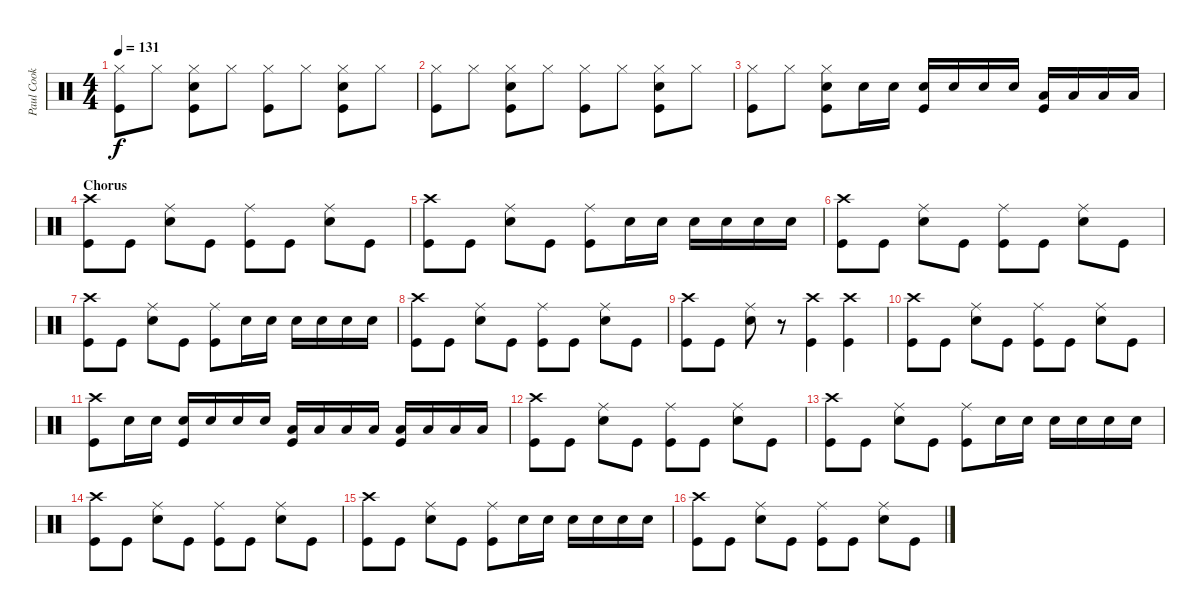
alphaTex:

\track ("Paul Cook" "Paul Cook") {instrument percussion}
\staff {score}
\articulation defaults
\ts (4 4)
\tempo 131
\clef neutral
\ks c
("Hi-Hat (closed)" "Kick (hit)").8{dy f} "Hi-Hat (closed)".8 ("Hi-Hat (closed)" "Snare (hit) 2" "Kick (hit)").8 "Hi-Hat (closed)".8 ("Hi-Hat (closed)" "Kick (hit)").8 "Hi-Hat (closed)".8 ("Hi-Hat (closed)" "Snare (hit) 2" "Kick (hit)").8 "Hi-Hat (closed)".8 |
("Hi-Hat (closed)" "Kick (hit)").8 "Hi-Hat (closed)".8 ("Hi-Hat (closed)" "Snare (hit) 2" "Kick (hit)").8 "Hi-Hat (closed)".8 ("Hi-Hat (closed)" "Kick (hit)").8 "Hi-Hat (closed)".8 ("Hi-Hat (closed)" "Snare (hit) 2" "Kick (hit)").8 "Hi-Hat (closed)".8 |
("Hi-Hat (closed)" "Kick (hit)").8 "Hi-Hat (closed)".8 ("Hi-Hat (closed)" "Snare (hit) 2" "Kick (hit)").8 "Snare (hit) 2".16 "Snare (hit) 2".16 ("Snare (hit) 2" "Kick (hit)").16 "Snare (hit) 2".16 "Snare (hit) 2".16 "Snare (hit) 2".16 ("Low Tom (hit)" "Kick (hit)").16 "Low Tom (hit)".16 "Low Tom (hit)".16 "Low Tom (hit)".16 |
\section ("" "Chorus")
("Crash high (hit)" "Kick (hit)").8 "Kick (hit)".8 ("Ride (middle)" "Snare (hit) 2").8 "Kick (hit)".8 ("Ride (middle)" "Kick (hit)").8 "Kick (hit)".8 ("Ride (middle)" "Snare (hit) 2").8 "Kick (hit)".8 |
("Crash high (hit)" "Kick (hit)").8 "Kick (hit)".8 ("Ride (middle)" "Snare (hit) 2").8 "Kick (hit)".8 ("Ride (middle)" "Kick (hit)").8 "Snare (hit) 2".16 "Snare (hit) 2".16 "Snare (hit) 2".16 "Snare (hit) 2".16 "Snare (hit) 2".16 "Snare (hit) 2".16 |
("Crash high (hit)" "Kick (hit)").8 "Kick (hit)".8 ("Ride (middle)" "Snare (hit) 2").8 "Kick (hit)".8 ("Ride (middle)" "Kick (hit)").8 "Kick (hit)".8 ("Ride (middle)" "Snare (hit) 2").8 "Kick (hit)".8 |
("Crash high (hit)" "Kick (hit)").8 "Kick (hit)".8 ("Ride (middle)" "Snare (hit) 2").8 "Kick (hit)".8 ("Ride (middle)" "Kick (hit)").8 "Snare (hit) 2".16 "Snare (hit) 2".16 "Snare (hit) 2".16 "Snare (hit) 2".16 "Snare (hit) 2".16 "Snare (hit) 2".16 |
("Crash high (hit)" "Kick (hit)").8 "Kick (hit)".8 ("Ride (middle)" "Snare (hit) 2").8 "Kick (hit)".8 ("Ride (middle)" "Kick (hit)").8 "Kick (hit)".8 ("Ride (middle)" "Snare (hit) 2").8 "Kick (hit)".8 |
("Crash high (hit)" "Kick (hit)").8 "Kick (hit)".8 ("Ride (middle)" "Snare (hit) 2").8 r.8 ("Crash high (hit)" "Kick (hit)").4 ("Crash high (hit)" "Kick (hit)").4 |
("Crash high (hit)" "Kick (hit)").8 "Kick (hit)".8 ("Ride (middle)" "Snare (hit) 2").8 "Kick (hit)".8 ("Ride (middle)" "Kick (hit)").8 "Kick (hit)".8 ("Ride (middle)" "Snare (hit) 2").8 "Kick (hit)".8 |
("Crash high (hit)" "Kick (hit)").8 "Snare (hit) 2".16 "Snare (hit) 2".16 ("Snare (hit) 2" "Kick (hit)").16 "Snare (hit) 2".16 "Snare (hit) 2".16 "Snare (hit) 2".16 ("Low Tom (hit)" "Kick (hit)").16 "Low Tom (hit)".16 "Low Tom (hit)".16 "Low Tom (hit)".16 ("Low Tom (hit)" "Kick (hit)").16 "Low Tom (hit)".16 "Low Tom (hit)".16 "Low Tom (hit)".16 |
("Crash high (hit)" "Kick (hit)").8 "Kick (hit)".8 ("Ride (middle)" "Snare (hit) 2").8 "Kick (hit)".8 ("Ride (middle)" "Kick (hit)").8 "Kick (hit)".8 ("Ride (middle)" "Snare (hit) 2").8 "Kick (hit)".8 |
("Crash high (hit)" "Kick (hit)").8 "Kick (hit)".8 ("Ride (middle)" "Snare (hit) 2").8 "Kick (hit)".8 ("Ride (middle)" "Kick (hit)").8 "Snare (hit) 2".16 "Snare (hit) 2".16 "Snare (hit) 2".16 "Snare (hit) 2".16 "Snare (hit) 2".16 "Snare (hit) 2".16 |
("Crash high (hit)" "Kick (hit)").8 "Kick (hit)".8 ("Ride (middle)" "Snare (hit) 2").8 "Kick (hit)".8 ("Ride (middle)" "Kick (hit)").8 "Kick (hit)".8 ("Ride (middle)" "Snare (hit) 2").8 "Kick (hit)".8 |
("Crash high (hit)" "Kick (hit)").8 "Kick (hit)".8 ("Ride (middle)" "Snare (hit) 2").8 "Kick (hit)".8 ("Ride (middle)" "Kick (hit)").8 "Snare (hit) 2".16 "Snare (hit) 2".16 "Snare (hit) 2".16 "Snare (hit) 2".16 "Snare (hit) 2".16 "Snare (hit) 2".16 |
("Crash high (hit)" "Kick (hit)").8 "Kick (hit)".8 ("Ride (middle)" "Snare (hit) 2").8 "Kick (hit)".8 ("Ride (middle)" "Kick (hit)").8 "Kick (hit)".8 ("Ride (middle)" "Snare (hit) 2").8 "Kick (hit)".8
